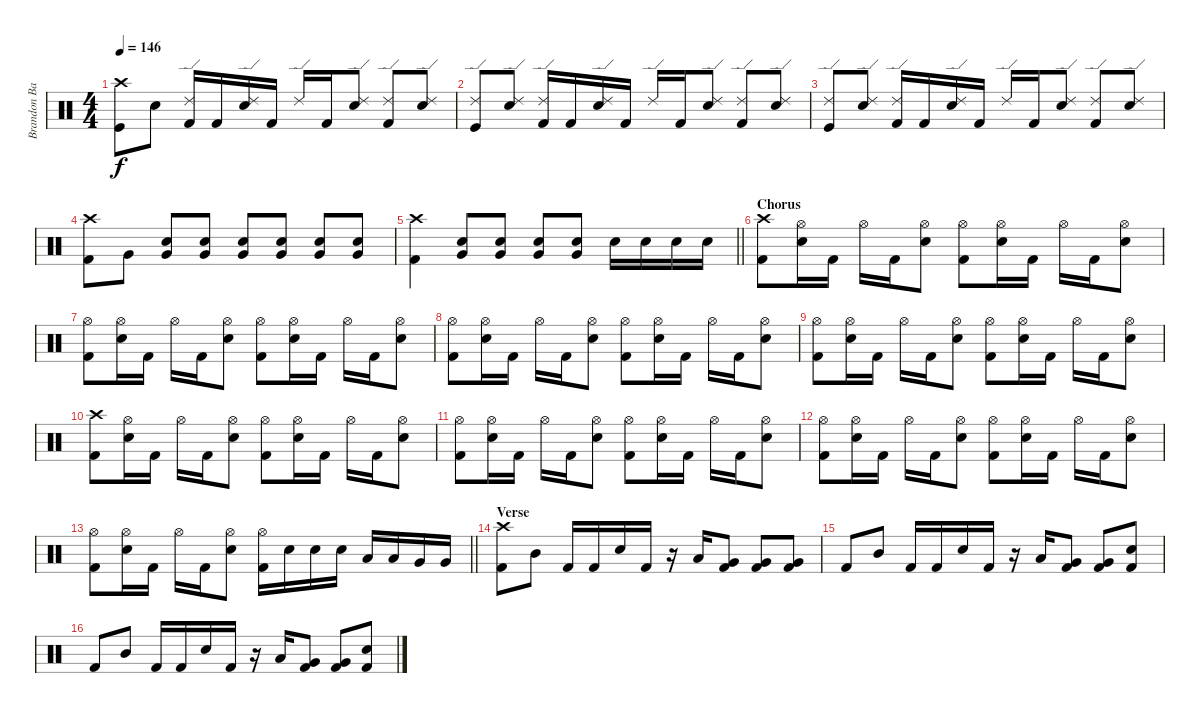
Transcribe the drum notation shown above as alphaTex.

\track ("Brandon Barnes - Drums" "Brandon Ba") {instrument percussion}
\staff {score}
\articulation defaults
\ts (4 4)
\tempo 146
\clef neutral
\ks c
("Crash high (hit)" "Kick (hit)").8{dy f} "Snare (hit) 2".8 ("Kick (hit) 2" "Ride (edge) 2").16 "Kick (hit) 2".16 ("Snare (hit) 2" "Ride (edge) 2").16 "Kick (hit) 2".16 "Ride (edge) 2".16 "Kick (hit) 2".16 ("Snare (hit) 2" "Ride (edge) 2").8 ("Kick (hit) 2" "Ride (edge) 2").8 ("Snare (hit) 2" "Ride (edge) 2").8 |
("Ride (edge) 2" "Kick (hit)").8 ("Ride (edge) 2" "Snare (hit) 2").8 ("Kick (hit) 2" "Ride (edge) 2").16 "Kick (hit) 2".16 ("Snare (hit) 2" "Ride (edge) 2").16 "Kick (hit) 2".16 "Ride (edge) 2".16 "Kick (hit) 2".16 ("Snare (hit) 2" "Ride (edge) 2").8 ("Kick (hit) 2" "Ride (edge) 2").8 ("Snare (hit) 2" "Ride (edge) 2").8 |
("Ride (edge) 2" "Kick (hit)").8 ("Ride (edge) 2" "Snare (hit) 2").8 ("Kick (hit) 2" "Ride (edge) 2").16 "Kick (hit) 2".16 ("Snare (hit) 2" "Ride (edge) 2").16 "Kick (hit) 2".16 "Ride (edge) 2".16 "Kick (hit) 2".16 ("Snare (hit) 2" "Ride (edge) 2").8 ("Kick (hit) 2" "Ride (edge) 2").8 ("Snare (hit) 2" "Ride (edge) 2").8 |
("Crash high (hit)" "Kick (hit) 2").8 "Very Low Tom (hit)".8 ("Very Low Tom (hit)" "Snare (hit) 2").8 ("Snare (hit) 2" "Very Low Tom (hit)").8 ("Snare (hit) 2" "Very Low Tom (hit)").8 ("Snare (hit) 2" "Very Low Tom (hit)").8 ("Snare (hit) 2" "Very Low Tom (hit)").8 ("Snare (hit) 2" "Very Low Tom (hit)").8 |
\barLineRight lightlight
("Crash high (hit)" "Kick (hit) 2").4 ("Very Low Tom (hit)" "Snare (hit) 2").8 ("Snare (hit) 2" "Very Low Tom (hit)").8 ("Snare (hit) 2" "Very Low Tom (hit)").8 ("Snare (hit) 2" "Very Low Tom (hit)").8 "Snare (hit) 2".16 "Snare (hit) 2".16 "Snare (hit) 2".16 "Snare (hit) 2".16 |
\section ("" "Chorus")
("Crash high (hit)" "Kick (hit) 2").8 ("Snare (hit) 2" "Hi-Hat (open)").16 "Kick (hit) 2".16 "Hi-Hat (open)".16 "Kick (hit) 2".16 ("Snare (hit) 2" "Hi-Hat (open)").8 ("Hi-Hat (open)" "Kick (hit) 2").8 ("Snare (hit) 2" "Hi-Hat (open)").16 "Kick (hit) 2".16 "Hi-Hat (open)".16 "Kick (hit) 2".16 ("Snare (hit) 2" "Hi-Hat (open)").8 |
("Hi-Hat (open)" "Kick (hit) 2").8 ("Snare (hit) 2" "Hi-Hat (open)").16 "Kick (hit) 2".16 "Hi-Hat (open)".16 "Kick (hit) 2".16 ("Snare (hit) 2" "Hi-Hat (open)").8 ("Hi-Hat (open)" "Kick (hit) 2").8 ("Snare (hit) 2" "Hi-Hat (open)").16 "Kick (hit) 2".16 "Hi-Hat (open)".16 "Kick (hit) 2".16 ("Snare (hit) 2" "Hi-Hat (open)").8 |
("Hi-Hat (open)" "Kick (hit) 2").8 ("Snare (hit) 2" "Hi-Hat (open)").16 "Kick (hit) 2".16 "Hi-Hat (open)".16 "Kick (hit) 2".16 ("Snare (hit) 2" "Hi-Hat (open)").8 ("Hi-Hat (open)" "Kick (hit) 2").8 ("Snare (hit) 2" "Hi-Hat (open)").16 "Kick (hit) 2".16 "Hi-Hat (open)".16 "Kick (hit) 2".16 ("Snare (hit) 2" "Hi-Hat (open)").8 |
("Hi-Hat (open)" "Kick (hit) 2").8 ("Snare (hit) 2" "Hi-Hat (open)").16 "Kick (hit) 2".16 "Hi-Hat (open)".16 "Kick (hit) 2".16 ("Snare (hit) 2" "Hi-Hat (open)").8 ("Hi-Hat (open)" "Kick (hit) 2").8 ("Snare (hit) 2" "Hi-Hat (open)").16 "Kick (hit) 2".16 "Hi-Hat (open)".16 "Kick (hit) 2".16 ("Snare (hit) 2" "Hi-Hat (open)").8 |
("Crash high (hit)" "Kick (hit) 2").8 ("Snare (hit) 2" "Hi-Hat (open)").16 "Kick (hit) 2".16 "Hi-Hat (open)".16 "Kick (hit) 2".16 ("Snare (hit) 2" "Hi-Hat (open)").8 ("Hi-Hat (open)" "Kick (hit) 2").8 ("Snare (hit) 2" "Hi-Hat (open)").16 "Kick (hit) 2".16 "Hi-Hat (open)".16 "Kick (hit) 2".16 ("Snare (hit) 2" "Hi-Hat (open)").8 |
("Hi-Hat (open)" "Kick (hit) 2").8 ("Snare (hit) 2" "Hi-Hat (open)").16 "Kick (hit) 2".16 "Hi-Hat (open)".16 "Kick (hit) 2".16 ("Snare (hit) 2" "Hi-Hat (open)").8 ("Hi-Hat (open)" "Kick (hit) 2").8 ("Snare (hit) 2" "Hi-Hat (open)").16 "Kick (hit) 2".16 "Hi-Hat (open)".16 "Kick (hit) 2".16 ("Snare (hit) 2" "Hi-Hat (open)").8 |
("Hi-Hat (open)" "Kick (hit) 2").8 ("Snare (hit) 2" "Hi-Hat (open)").16 "Kick (hit) 2".16 "Hi-Hat (open)".16 "Kick (hit) 2".16 ("Snare (hit) 2" "Hi-Hat (open)").8 ("Hi-Hat (open)" "Kick (hit) 2").8 ("Snare (hit) 2" "Hi-Hat (open)").16 "Kick (hit) 2".16 "Hi-Hat (open)".16 "Kick (hit) 2".16 ("Snare (hit) 2" "Hi-Hat (open)").8 |
\barLineRight lightlight
("Hi-Hat (open)" "Kick (hit) 2").8 ("Snare (hit) 2" "Hi-Hat (open)").16 "Kick (hit) 2".16 "Hi-Hat (open)".16 "Kick (hit) 2".16 ("Snare (hit) 2" "Hi-Hat (open)").8 ("Hi-Hat (open)" "Kick (hit) 2").16 "Snare (hit) 2".16 "Snare (hit) 2".16 "Snare (hit) 2".16 "Low Tom (hit)".16 "Low Tom (hit)".16 "Very Low Tom (hit)".16 "Very Low Tom (hit)".16 |
\section ("" "Verse")
("Crash high (hit)" "Kick (hit) 2").8 "Mid Tom (hit)".8 "Kick (hit) 2".16 "Kick (hit) 2".16 "Snare (hit) 2".16 "Kick (hit) 2".16 r.16 "Low Tom (hit)".16 ("Kick (hit) 2" "Very Low Tom (hit)").8 ("Kick (hit) 2" "Very Low Tom (hit)").8 ("Kick (hit) 2" "Very Low Tom (hit)").8 |
"Kick (hit) 2".8 "Mid Tom (hit)".8 "Kick (hit) 2".16 "Kick (hit) 2".16 "Snare (hit) 2".16 "Kick (hit) 2".16 r.16 "Low Tom (hit)".16 ("Kick (hit) 2" "Very Low Tom (hit)").8 ("Kick (hit) 2" "Very Low Tom (hit)").8 ("Kick (hit) 2" "Snare (hit) 2").8 |
"Kick (hit) 2".8 "Mid Tom (hit)".8 "Kick (hit) 2".16 "Kick (hit) 2".16 "Snare (hit) 2".16 "Kick (hit) 2".16 r.16 "Low Tom (hit)".16 ("Kick (hit) 2" "Very Low Tom (hit)").8 ("Kick (hit) 2" "Very Low Tom (hit)").8 ("Kick (hit) 2" "Snare (hit) 2").8
